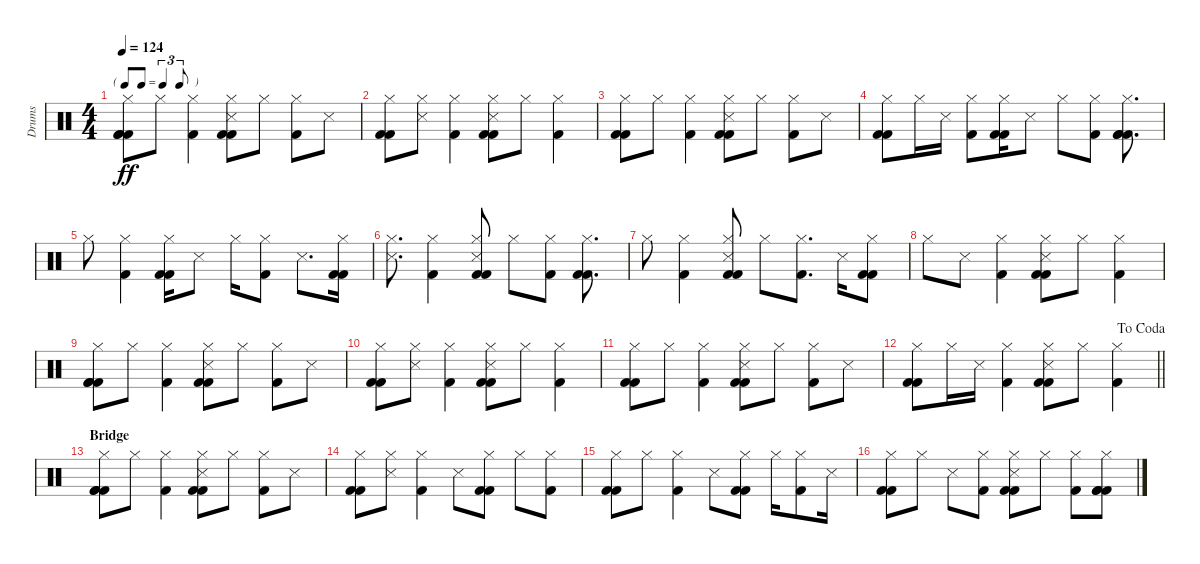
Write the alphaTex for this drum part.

\track ("Drums" "Drums") {instrument percussion}
\staff {score}
\articulation defaults
\ts (4 4)
\tf triplet8th
\tempo 124
\clef neutral
\ks c
("Kick (hit) 2" "Kick (hit) 2" "Kick (hit) 2" "Hi-Hat (closed)").8{dy ff} "Hi-Hat (closed)".8 ("Kick (hit) 2" "Hi-Hat (closed)").4 ("Kick (hit) 2" "Kick (hit) 2" "Hi-Hat (closed)" "Snare (side stick) 3").8 "Hi-Hat (closed)".8 ("Kick (hit) 2" "Hi-Hat (closed)").8 "Snare (side stick) 3".8 |
("Kick (hit) 2" "Kick (hit) 2" "Hi-Hat (closed)").8 ("Snare (side stick) 3" "Hi-Hat (closed)").8 ("Kick (hit) 2" "Hi-Hat (closed)").4 ("Snare (side stick) 3" "Kick (hit) 2" "Kick (hit) 2" "Hi-Hat (closed)").8 "Hi-Hat (closed)".8 ("Kick (hit) 2" "Hi-Hat (closed)").4 |
("Kick (hit) 2" "Kick (hit) 2" "Hi-Hat (closed)").8 "Hi-Hat (closed)".8 ("Kick (hit) 2" "Hi-Hat (closed)").4 ("Snare (side stick) 3" "Kick (hit) 2" "Kick (hit) 2" "Hi-Hat (closed)").8 "Hi-Hat (closed)".8 ("Kick (hit) 2" "Hi-Hat (closed)").8 "Snare (side stick) 3".8 |
("Kick (hit) 2" "Kick (hit) 2" "Hi-Hat (closed)").8 "Hi-Hat (closed)".16 "Snare (side stick) 3".16 ("Kick (hit) 2" "Hi-Hat (closed)").8 ("Kick (hit) 2" "Kick (hit) 2" "Hi-Hat (closed)").16 "Snare (side stick) 3".8 "Hi-Hat (closed)".8 ("Kick (hit) 2" "Hi-Hat (closed)").8 ("Kick (hit) 2" "Kick (hit) 2" "Kick (hit) 2" "Hi-Hat (closed)").8{d} |
"Hi-Hat (closed)".8 ("Kick (hit) 2" "Hi-Hat (closed)").4 ("Kick (hit) 2" "Kick (hit) 2" "Hi-Hat (closed)").16 "Snare (side stick) 3".8 "Hi-Hat (closed)".16 ("Kick (hit) 2" "Hi-Hat (closed)").8 "Snare (side stick) 3".8{d} ("Kick (hit) 2" "Kick (hit) 2" "Hi-Hat (closed)").16 |
("Snare (side stick) 3" "Hi-Hat (closed)").8{d} ("Kick (hit) 2" "Hi-Hat (closed)").4 ("Snare (side stick) 3" "Kick (hit) 2" "Kick (hit) 2" "Hi-Hat (closed)").8 "Hi-Hat (closed)".8 ("Kick (hit) 2" "Hi-Hat (closed)").8 ("Kick (hit) 2" "Kick (hit) 2" "Hi-Hat (closed)").8{d} |
"Hi-Hat (closed)".8 ("Kick (hit) 2" "Hi-Hat (closed)").4 ("Snare (side stick) 3" "Kick (hit) 2" "Kick (hit) 2" "Hi-Hat (closed)").8 "Hi-Hat (closed)".8 ("Kick (hit) 2" "Hi-Hat (closed)").8{d} "Snare (side stick) 3".16 ("Kick (hit) 2" "Kick (hit) 2" "Hi-Hat (closed)").8 |
"Hi-Hat (closed)".8 "Snare (side stick) 3".8 ("Kick (hit) 2" "Hi-Hat (closed)").4 ("Kick (hit) 2" "Kick (hit) 2" "Hi-Hat (closed)" "Snare (side stick) 3").8 "Hi-Hat (closed)".8 ("Kick (hit) 2" "Hi-Hat (closed)").4 |
("Kick (hit) 2" "Kick (hit) 2" "Kick (hit) 2" "Hi-Hat (closed)").8 "Hi-Hat (closed)".8 ("Kick (hit) 2" "Hi-Hat (closed)").4 ("Kick (hit) 2" "Kick (hit) 2" "Hi-Hat (closed)" "Snare (side stick) 3").8 "Hi-Hat (closed)".8 ("Kick (hit) 2" "Hi-Hat (closed)").8 "Snare (side stick) 3".8 |
("Kick (hit) 2" "Kick (hit) 2" "Hi-Hat (closed)").8 ("Snare (side stick) 3" "Hi-Hat (closed)").8 ("Kick (hit) 2" "Hi-Hat (closed)").4 ("Snare (side stick) 3" "Kick (hit) 2" "Kick (hit) 2" "Hi-Hat (closed)").8 "Hi-Hat (closed)".8 ("Kick (hit) 2" "Hi-Hat (closed)").4 |
("Kick (hit) 2" "Kick (hit) 2" "Hi-Hat (closed)").8 "Hi-Hat (closed)".8 ("Kick (hit) 2" "Hi-Hat (closed)").4 ("Snare (side stick) 3" "Kick (hit) 2" "Kick (hit) 2" "Hi-Hat (closed)").8 "Hi-Hat (closed)".8 ("Kick (hit) 2" "Hi-Hat (closed)").8 "Snare (side stick) 3".8 |
\jump dacoda
\barLineRight lightlight
("Kick (hit) 2" "Kick (hit) 2" "Hi-Hat (closed)").8 "Hi-Hat (closed)".16 "Snare (side stick) 3".16 ("Kick (hit) 2" "Hi-Hat (closed)").4 ("Kick (hit) 2" "Kick (hit) 2" "Hi-Hat (closed)" "Snare (side stick) 3").8 "Hi-Hat (closed)".8 ("Kick (hit) 2" "Hi-Hat (closed)").4 |
\section ("" "Bridge")
("Kick (hit) 2" "Kick (hit) 2" "Kick (hit) 2" "Hi-Hat (closed)").8 "Hi-Hat (closed)".8 ("Kick (hit) 2" "Hi-Hat (closed)").4 ("Kick (hit) 2" "Kick (hit) 2" "Hi-Hat (closed)" "Snare (side stick) 3").8 "Hi-Hat (closed)".8 ("Kick (hit) 2" "Hi-Hat (closed)").8 "Snare (side stick) 3".8 |
("Kick (hit) 2" "Kick (hit) 2" "Hi-Hat (closed)").8 ("Snare (side stick) 3" "Hi-Hat (closed)").8 ("Kick (hit) 2" "Hi-Hat (closed)").4 "Snare (side stick) 3".8 ("Kick (hit) 2" "Kick (hit) 2" "Hi-Hat (closed)").8 "Hi-Hat (closed)".8 ("Kick (hit) 2" "Hi-Hat (closed)").8 |
("Kick (hit) 2" "Kick (hit) 2" "Hi-Hat (closed)").8 "Hi-Hat (closed)".8 ("Kick (hit) 2" "Hi-Hat (closed)").4 "Snare (side stick) 3".8 ("Kick (hit) 2" "Kick (hit) 2" "Hi-Hat (closed)").8 "Hi-Hat (closed)".16 ("Kick (hit) 2" "Hi-Hat (closed)").8 "Snare (side stick) 3".16 |
("Kick (hit) 2" "Kick (hit) 2" "Hi-Hat (closed)").8 "Hi-Hat (closed)".8 "Snare (side stick) 3".8 ("Kick (hit) 2" "Hi-Hat (closed)").8 ("Kick (hit) 2" "Kick (hit) 2" "Hi-Hat (closed)" "Snare (side stick) 3").8 "Hi-Hat (closed)".8 ("Kick (hit) 2" "Hi-Hat (closed)").8 ("Kick (hit) 2" "Kick (hit) 2" "Kick (hit) 2" "Hi-Hat (closed)").8
